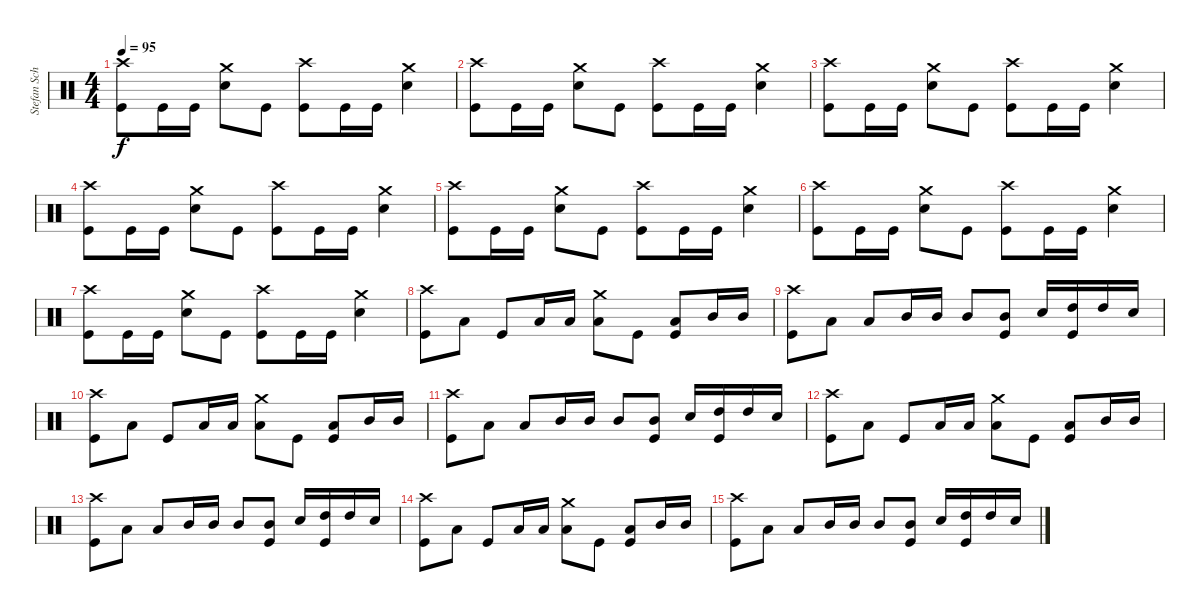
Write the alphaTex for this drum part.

\track ("Stefan Schwarzmann - -drums" "Stefan Sch") {instrument percussion}
\staff {score}
\articulation defaults
\ts (4 4)
\tempo 95
\clef neutral
\ks c
("Crash high (hit)" "Kick (hit)").8{dy f} "Kick (hit)".16 "Kick (hit)".16 ("Crash medium (hit)" "Electric Snare (hit)").8 "Kick (hit)".8 ("Crash high (hit)" "Kick (hit)").8 "Kick (hit)".16 "Kick (hit)".16 ("Crash medium (hit)" "Electric Snare (hit)").4 |
("Crash high (hit)" "Kick (hit)").8 "Kick (hit)".16 "Kick (hit)".16 ("Crash medium (hit)" "Electric Snare (hit)").8 "Kick (hit)".8 ("Crash high (hit)" "Kick (hit)").8 "Kick (hit)".16 "Kick (hit)".16 ("Crash medium (hit)" "Electric Snare (hit)").4 |
("Crash high (hit)" "Kick (hit)").8 "Kick (hit)".16 "Kick (hit)".16 ("Crash medium (hit)" "Electric Snare (hit)").8 "Kick (hit)".8 ("Crash high (hit)" "Kick (hit)").8 "Kick (hit)".16 "Kick (hit)".16 ("Crash medium (hit)" "Electric Snare (hit)").4 |
("Crash high (hit)" "Kick (hit)").8 "Kick (hit)".16 "Kick (hit)".16 ("Crash medium (hit)" "Electric Snare (hit)").8 "Kick (hit)".8 ("Crash high (hit)" "Kick (hit)").8 "Kick (hit)".16 "Kick (hit)".16 ("Crash medium (hit)" "Electric Snare (hit)").4 |
("Crash high (hit)" "Kick (hit)").8 "Kick (hit)".16 "Kick (hit)".16 ("Crash medium (hit)" "Electric Snare (hit)").8 "Kick (hit)".8 ("Crash high (hit)" "Kick (hit)").8 "Kick (hit)".16 "Kick (hit)".16 ("Crash medium (hit)" "Electric Snare (hit)").4 |
("Crash high (hit)" "Kick (hit)").8 "Kick (hit)".16 "Kick (hit)".16 ("Crash medium (hit)" "Electric Snare (hit)").8 "Kick (hit)".8 ("Crash high (hit)" "Kick (hit)").8 "Kick (hit)".16 "Kick (hit)".16 ("Crash medium (hit)" "Electric Snare (hit)").4 |
("Crash high (hit)" "Kick (hit)").8 "Kick (hit)".16 "Kick (hit)".16 ("Crash medium (hit)" "Electric Snare (hit)").8 "Kick (hit)".8 ("Crash high (hit)" "Kick (hit)").8 "Kick (hit)".16 "Kick (hit)".16 ("Crash medium (hit)" "Electric Snare (hit)").4 |
("Crash high (hit)" "Kick (hit)").8 "Low Tom (hit)".8 "Kick (hit)".8 "Low Tom (hit)".16 "Low Tom (hit)".16 ("Crash medium (hit)" "Low Tom (hit)").8 "Kick (hit)".8 ("Low Tom (hit)" "Kick (hit)").8 "Mid Tom (hit)".16 "Mid Tom (hit)".16 |
("Crash high (hit)" "Kick (hit)").8 "Low Tom (hit)".8 "Low Tom (hit)".8 "Mid Tom (hit)".16 "Mid Tom (hit)".16 "Mid Tom (hit)".8 ("Mid Tom (hit)" "Kick (hit)").8 "Electric Snare (hit)".16 ("High Tom (hit)" "Kick (hit)").16 "High Tom (hit)".16 "Electric Snare (hit)".16 |
("Crash high (hit)" "Kick (hit)").8 "Low Tom (hit)".8 "Kick (hit)".8 "Low Tom (hit)".16 "Low Tom (hit)".16 ("Crash medium (hit)" "Low Tom (hit)").8 "Kick (hit)".8 ("Low Tom (hit)" "Kick (hit)").8 "Mid Tom (hit)".16 "Mid Tom (hit)".16 |
("Crash high (hit)" "Kick (hit)").8 "Low Tom (hit)".8 "Low Tom (hit)".8 "Mid Tom (hit)".16 "Mid Tom (hit)".16 "Mid Tom (hit)".8 ("Mid Tom (hit)" "Kick (hit)").8 "Electric Snare (hit)".16 ("High Tom (hit)" "Kick (hit)").16 "High Tom (hit)".16 "Electric Snare (hit)".16 |
("Crash high (hit)" "Kick (hit)").8 "Low Tom (hit)".8 "Kick (hit)".8 "Low Tom (hit)".16 "Low Tom (hit)".16 ("Crash medium (hit)" "Low Tom (hit)").8 "Kick (hit)".8 ("Low Tom (hit)" "Kick (hit)").8 "Mid Tom (hit)".16 "Mid Tom (hit)".16 |
("Crash high (hit)" "Kick (hit)").8 "Low Tom (hit)".8 "Low Tom (hit)".8 "Mid Tom (hit)".16 "Mid Tom (hit)".16 "Mid Tom (hit)".8 ("Mid Tom (hit)" "Kick (hit)").8 "Electric Snare (hit)".16 ("High Tom (hit)" "Kick (hit)").16 "High Tom (hit)".16 "Electric Snare (hit)".16 |
("Crash high (hit)" "Kick (hit)").8 "Low Tom (hit)".8 "Kick (hit)".8 "Low Tom (hit)".16 "Low Tom (hit)".16 ("Crash medium (hit)" "Low Tom (hit)").8 "Kick (hit)".8 ("Low Tom (hit)" "Kick (hit)").8 "Mid Tom (hit)".16 "Mid Tom (hit)".16 |
("Crash high (hit)" "Kick (hit)").8 "Low Tom (hit)".8 "Low Tom (hit)".8 "Mid Tom (hit)".16 "Mid Tom (hit)".16 "Mid Tom (hit)".8 ("Mid Tom (hit)" "Kick (hit)").8 "Electric Snare (hit)".16 ("High Tom (hit)" "Kick (hit)").16 "High Tom (hit)".16 "Electric Snare (hit)".16
